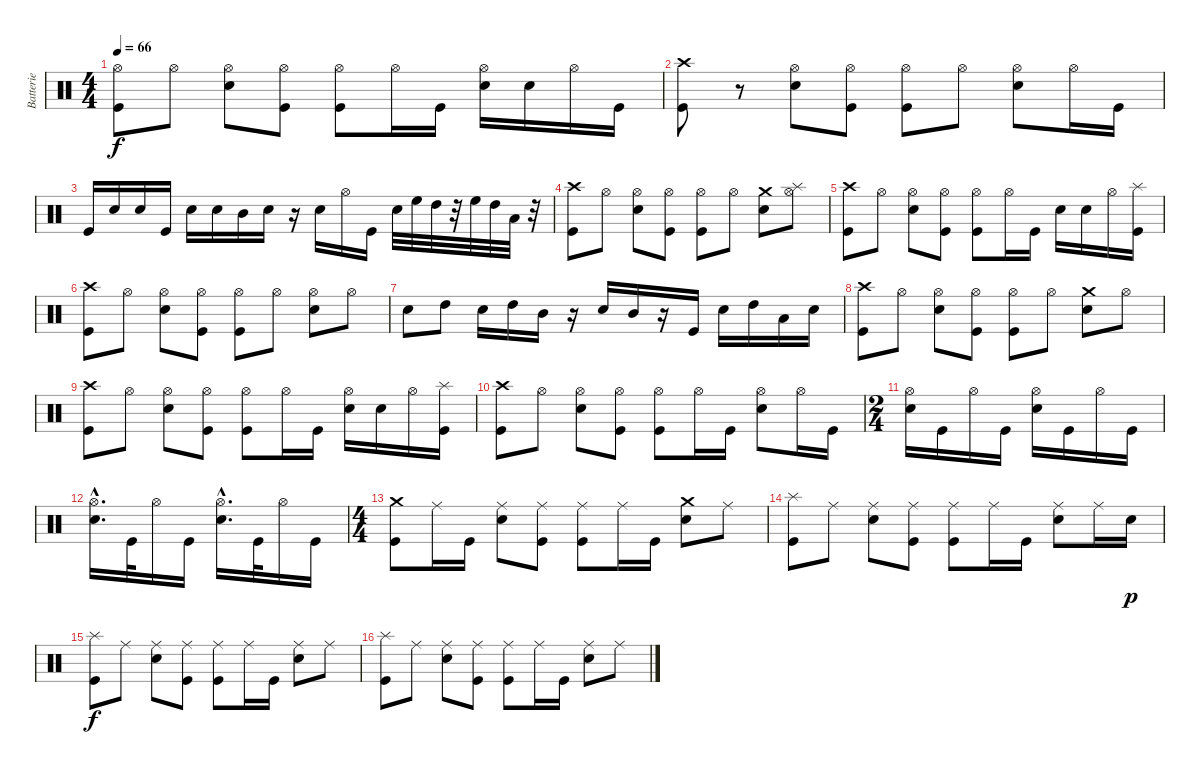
\track ("Batterie" "Batterie") {instrument percussion}
\staff {score}
\articulation defaults
\ts (4 4)
\tempo 66
\clef neutral
\ks c
("Hi-Hat (open)" "Kick (hit)").8{dy f} "Hi-Hat (open)".8 ("Hi-Hat (open)" "Snare (hit) 2").8 ("Hi-Hat (open)" "Kick (hit)").8 ("Hi-Hat (open)" "Kick (hit)").8 "Hi-Hat (open)".16 "Kick (hit)".16 ("Hi-Hat (open)" "Snare (hit) 2").16 "Snare (hit) 2".16 "Hi-Hat (open)".16 "Kick (hit)".16 |
("Crash high (hit)" "Kick (hit)").8 r.8 ("Hi-Hat (open)" "Snare (hit) 2").8 ("Hi-Hat (open)" "Kick (hit)").8 ("Hi-Hat (open)" "Kick (hit)").8 "Hi-Hat (open)".8 ("Hi-Hat (open)" "Snare (hit) 2").8 "Hi-Hat (open)".16 "Kick (hit)".16 |
"Kick (hit)".16 "Snare (hit) 2".16 "Snare (hit) 2".16 "Kick (hit)".16 "Snare (hit) 2".16 "Snare (hit) 2".16 "Mid Tom (hit)".16 "Snare (hit) 2".16 r.16 "Snare (hit) 2".16 "Hi-Hat (open)".16 "Kick (hit)".16 "Snare (hit) 2".32 "High Floor Tom (hit)".32 "High Tom (hit)".32 r.32 "High Floor Tom (hit)".32 "High Tom (hit)".32 "Low Tom (hit)".32 r.32 |
("Crash high (hit)" "Kick (hit)").8 "Hi-Hat (open)".8 ("Hi-Hat (open)" "Snare (hit) 2").8 ("Hi-Hat (open)" "Kick (hit)").8 ("Hi-Hat (open)" "Kick (hit)").8 "Hi-Hat (open)".8 ("Crash medium (hit)" "Snare (hit) 2").8 ("Hi-Hat (open)" "Splash (hit)").8 |
("Crash high (hit)" "Kick (hit)").8 "Hi-Hat (open)".8 ("Hi-Hat (open)" "Snare (hit) 2").8 ("Hi-Hat (open)" "Kick (hit)").8 ("Hi-Hat (open)" "Kick (hit)").8 "Hi-Hat (open)".16 "Kick (hit)".16 "Snare (hit) 2".16 "Snare (hit) 2".16 "Hi-Hat (open)".16 ("Splash (hit)" "Kick (hit)").16 |
("Crash high (hit)" "Kick (hit)").8 "Hi-Hat (open)".8 ("Hi-Hat (open)" "Snare (hit) 2").8 ("Hi-Hat (open)" "Kick (hit)").8 ("Hi-Hat (open)" "Kick (hit)").8 "Hi-Hat (open)".8 ("Hi-Hat (open)" "Snare (hit) 2").8 "Hi-Hat (open)".8 |
"Snare (hit) 2".8 "High Tom (hit)".8 "Snare (hit) 2".16 "High Tom (hit)".16 "Mid Tom (hit)".16 r.16 "Snare (hit) 2".16 "Mid Tom (hit)".16 r.16 "Kick (hit)".16 "Snare (hit) 2".16 "High Tom (hit)".16 "Low Tom (hit)".16 "Snare (hit) 2".16 |
("Crash high (hit)" "Kick (hit)").8 "Hi-Hat (open)".8 ("Hi-Hat (open)" "Snare (hit) 2").8 ("Hi-Hat (open)" "Kick (hit)").8 ("Hi-Hat (open)" "Kick (hit)").8 "Hi-Hat (open)".8 ("Crash medium (hit)" "Snare (hit) 2").8 "Hi-Hat (open)".8 |
("Crash high (hit)" "Kick (hit)").8 "Hi-Hat (open)".8 ("Hi-Hat (open)" "Snare (hit) 2").8 ("Hi-Hat (open)" "Kick (hit)").8 ("Hi-Hat (open)" "Kick (hit)").8 "Hi-Hat (open)".16 "Kick (hit)".16 ("Hi-Hat (open)" "Snare (hit) 2").16 "Snare (hit) 2".16 "Hi-Hat (open)".16 ("Splash (hit)" "Kick (hit)").16 |
("Crash high (hit)" "Kick (hit)").8 "Hi-Hat (open)".8 ("Hi-Hat (open)" "Snare (hit) 2").8 ("Hi-Hat (open)" "Kick (hit)").8 ("Hi-Hat (open)" "Kick (hit)").8 "Hi-Hat (open)".16 "Kick (hit)".16 ("Hi-Hat (open)" "Snare (hit) 2").8 "Hi-Hat (open)".16 "Kick (hit)".16 |
\ts (2 4)
("Hi-Hat (open)" "Snare (hit) 2").16 "Kick (hit)".16 "Hi-Hat (open)".16 "Kick (hit)".16 ("Hi-Hat (open)" "Snare (hit) 2").16 "Kick (hit)".16 "Hi-Hat (open)".16 "Kick (hit)".16 |
("Hi-Hat (open)"{hac} "Snare (hit) 2"{hac}).16{d} "Kick (hit)".32 "Hi-Hat (open)".16 "Kick (hit)".16 ("Hi-Hat (open)"{hac} "Snare (hit) 2"{hac}).16{d} "Kick (hit)".32 "Hi-Hat (open)".16 "Kick (hit)".16 |
\ts (4 4)
("Crash medium (hit)" "Kick (hit)").8 "Ride (middle)".16 "Kick (hit)".16 ("Ride (middle)" "Snare (hit) 2").8 ("Ride (middle)" "Kick (hit)").8 ("Ride (middle)" "Kick (hit)").8 "Ride (middle)".16 "Kick (hit)".16 ("Crash medium (hit)" "Snare (hit) 2").8 "Ride (middle)".8 |
("Splash (hit)" "Kick (hit)").8 "Ride (middle)".8 ("Ride (middle)" "Snare (hit) 2").8 ("Ride (middle)" "Kick (hit)").8 ("Ride (middle)" "Kick (hit)").8 "Ride (middle)".16 "Kick (hit)".16 ("Ride (middle)" "Snare (hit) 2").8 "Ride (middle)".16 "Snare (hit) 2".16{dy p} |
("Splash (hit)" "Kick (hit)").8{dy f} "Ride (middle)".8 ("Ride (middle)" "Snare (hit) 2").8 ("Ride (middle)" "Kick (hit)").8 ("Ride (middle)" "Kick (hit)").8 "Ride (middle)".16 "Kick (hit)".16 ("Ride (middle)" "Snare (hit) 2").8 "Ride (middle)".8 |
("Splash (hit)" "Kick (hit)").8 "Ride (middle)".8 ("Ride (middle)" "Snare (hit) 2").8 ("Ride (middle)" "Kick (hit)").8 ("Ride (middle)" "Kick (hit)").8 "Ride (middle)".16 "Kick (hit)".16 ("Ride (middle)" "Snare (hit) 2").8 "Ride (middle)".8
